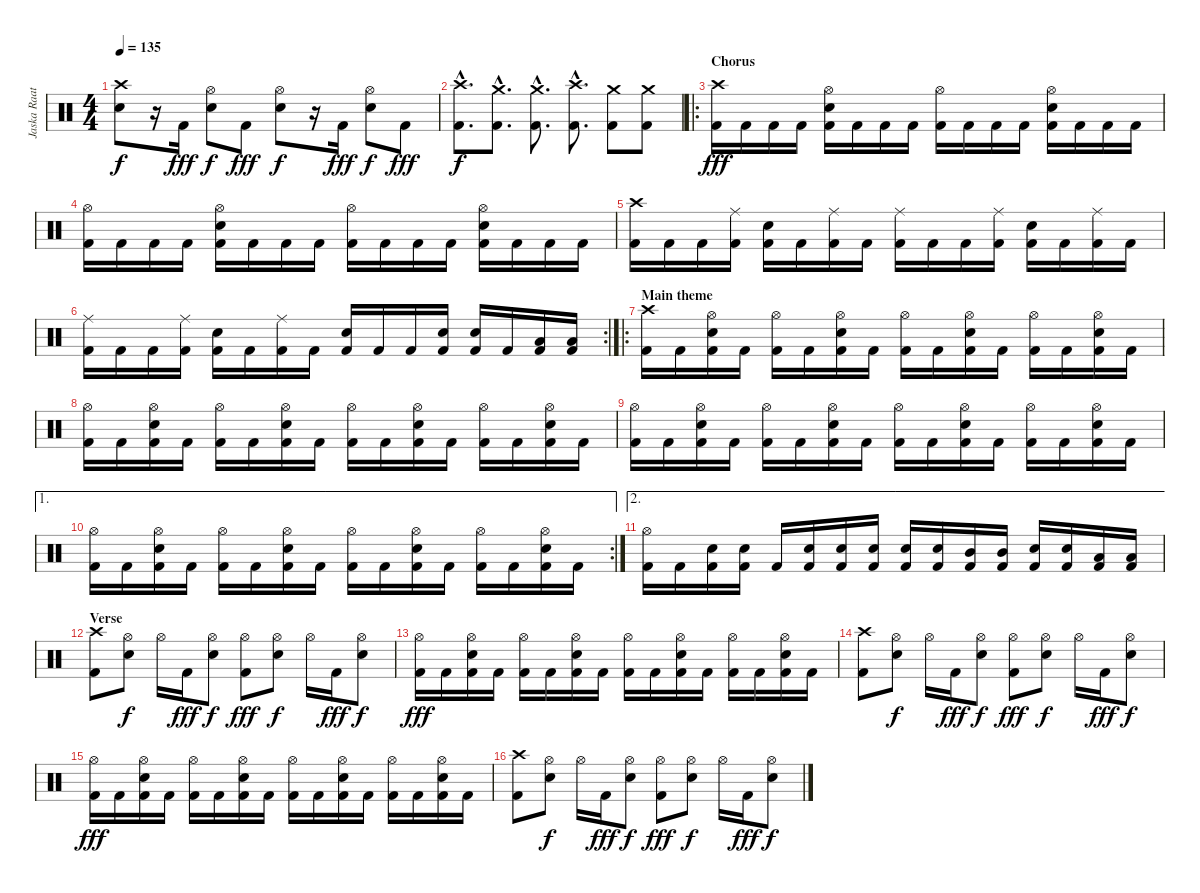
\track ("Jaska Raatikainen" "Jaska Raat") {instrument percussion}
\staff {score}
\articulation defaults
\ts (4 4)
\tempo 135
\clef neutral
\ks c
("Crash high (hit)" "Electric Snare (hit)").8{dy f} r.16 "Kick (hit) 2".16{dy fff} ("Hi-Hat (open)" "Electric Snare (hit)").8{dy f} "Kick (hit) 2".8{dy fff} ("Hi-Hat (open)" "Electric Snare (hit)").8{dy f} r.16 "Kick (hit) 2".16{dy fff} ("Hi-Hat (open)" "Electric Snare (hit)").8{dy f} "Kick (hit) 2".8{dy fff} |
("Crash high (hit)"{hac} "Kick (hit) 2"{hac}).8{d dy f} ("Crash medium (hit)"{hac} "Kick (hit) 2"{hac}).8{d} ("Crash medium (hit)"{hac} "Kick (hit) 2"{hac}).8{d} ("Crash high (hit)"{hac} "Kick (hit) 2"{hac}).8{d} ("Crash medium (hit)" "Kick (hit) 2").8 ("Crash medium (hit)" "Kick (hit) 2").8 |
\ro
\section ("" "Chorus")
("Crash high (hit)" "Kick (hit) 2").16{dy fff} "Kick (hit) 2".16 "Kick (hit) 2".16 "Kick (hit) 2".16 ("Hi-Hat (open)" "Electric Snare (hit)" "Kick (hit) 2").16 "Kick (hit) 2".16 "Kick (hit) 2".16 "Kick (hit) 2".16 ("Hi-Hat (open)" "Kick (hit) 2").16 "Kick (hit) 2".16 "Kick (hit) 2".16 "Kick (hit) 2".16 ("Hi-Hat (open)" "Electric Snare (hit)" "Kick (hit) 2").16 "Kick (hit) 2".16 "Kick (hit) 2".16 "Kick (hit) 2".16 |
("Hi-Hat (open)" "Kick (hit) 2").16 "Kick (hit) 2".16 "Kick (hit) 2".16 "Kick (hit) 2".16 ("Hi-Hat (open)" "Electric Snare (hit)" "Kick (hit) 2").16 "Kick (hit) 2".16 "Kick (hit) 2".16 "Kick (hit) 2".16 ("Hi-Hat (open)" "Kick (hit) 2").16 "Kick (hit) 2".16 "Kick (hit) 2".16 "Kick (hit) 2".16 ("Hi-Hat (open)" "Electric Snare (hit)" "Kick (hit) 2").16 "Kick (hit) 2".16 "Kick (hit) 2".16 "Kick (hit) 2".16 |
("Crash high (hit)" "Kick (hit) 2").16 "Kick (hit) 2".16 "Kick (hit) 2".16 ("Ride (middle)" "Kick (hit) 2").16 ("Electric Snare (hit)" "Kick (hit) 2").16 "Kick (hit) 2".16 ("Ride (middle)" "Kick (hit) 2").16 "Kick (hit) 2".16 ("Ride (middle)" "Kick (hit) 2").16 "Kick (hit) 2".16 "Kick (hit) 2".16 ("Ride (middle)" "Kick (hit) 2").16 ("Electric Snare (hit)" "Kick (hit) 2").16 "Kick (hit) 2".16 ("Ride (middle)" "Kick (hit) 2").16 "Kick (hit) 2".16 |
\rc 2
("Ride (middle)" "Kick (hit) 2").16 "Kick (hit) 2".16 "Kick (hit) 2".16 ("Ride (middle)" "Kick (hit) 2").16 ("Electric Snare (hit)" "Kick (hit) 2").16 "Kick (hit) 2".16 ("Ride (middle)" "Kick (hit) 2").16 "Kick (hit) 2".16 ("Electric Snare (hit)" "Kick (hit) 2").16 "Kick (hit) 2".16 "Kick (hit) 2".16 ("Electric Snare (hit)" "Kick (hit) 2").16 ("Electric Snare (hit)" "Kick (hit) 2").16 "Kick (hit) 2".16 ("Low Tom (hit)" "Kick (hit) 2").16 ("Low Tom (hit)" "Kick (hit) 2").16 |
\ro
\section ("" "Main theme")
("Crash high (hit)" "Kick (hit) 2").16 "Kick (hit) 2".16 ("Hi-Hat (open)" "Electric Snare (hit)" "Kick (hit) 2").16 "Kick (hit) 2".16 ("Hi-Hat (open)" "Kick (hit) 2").16 "Kick (hit) 2".16 ("Hi-Hat (open)" "Electric Snare (hit)" "Kick (hit) 2").16 "Kick (hit) 2".16 ("Hi-Hat (open)" "Kick (hit) 2").16 "Kick (hit) 2".16 ("Hi-Hat (open)" "Electric Snare (hit)" "Kick (hit) 2").16 "Kick (hit) 2".16 ("Hi-Hat (open)" "Kick (hit) 2").16 "Kick (hit) 2".16 ("Hi-Hat (open)" "Electric Snare (hit)" "Kick (hit) 2").16 "Kick (hit) 2".16 |
("Hi-Hat (open)" "Kick (hit) 2").16 "Kick (hit) 2".16 ("Hi-Hat (open)" "Electric Snare (hit)" "Kick (hit) 2").16 "Kick (hit) 2".16 ("Hi-Hat (open)" "Kick (hit) 2").16 "Kick (hit) 2".16 ("Hi-Hat (open)" "Electric Snare (hit)" "Kick (hit) 2").16 "Kick (hit) 2".16 ("Hi-Hat (open)" "Kick (hit) 2").16 "Kick (hit) 2".16 ("Hi-Hat (open)" "Electric Snare (hit)" "Kick (hit) 2").16 "Kick (hit) 2".16 ("Hi-Hat (open)" "Kick (hit) 2").16 "Kick (hit) 2".16 ("Hi-Hat (open)" "Electric Snare (hit)" "Kick (hit) 2").16 "Kick (hit) 2".16 |
("Hi-Hat (open)" "Kick (hit) 2").16 "Kick (hit) 2".16 ("Hi-Hat (open)" "Electric Snare (hit)" "Kick (hit) 2").16 "Kick (hit) 2".16 ("Hi-Hat (open)" "Kick (hit) 2").16 "Kick (hit) 2".16 ("Hi-Hat (open)" "Electric Snare (hit)" "Kick (hit) 2").16 "Kick (hit) 2".16 ("Hi-Hat (open)" "Kick (hit) 2").16 "Kick (hit) 2".16 ("Hi-Hat (open)" "Electric Snare (hit)" "Kick (hit) 2").16 "Kick (hit) 2".16 ("Hi-Hat (open)" "Kick (hit) 2").16 "Kick (hit) 2".16 ("Hi-Hat (open)" "Electric Snare (hit)" "Kick (hit) 2").16 "Kick (hit) 2".16 |
\ae 1
\rc 2
("Hi-Hat (open)" "Kick (hit) 2").16 "Kick (hit) 2".16 ("Hi-Hat (open)" "Electric Snare (hit)" "Kick (hit) 2").16 "Kick (hit) 2".16 ("Hi-Hat (open)" "Kick (hit) 2").16 "Kick (hit) 2".16 ("Hi-Hat (open)" "Electric Snare (hit)" "Kick (hit) 2").16 "Kick (hit) 2".16 ("Hi-Hat (open)" "Kick (hit) 2").16 "Kick (hit) 2".16 ("Hi-Hat (open)" "Electric Snare (hit)" "Kick (hit) 2").16 "Kick (hit) 2".16 ("Hi-Hat (open)" "Kick (hit) 2").16 "Kick (hit) 2".16 ("Hi-Hat (open)" "Electric Snare (hit)" "Kick (hit) 2").16 "Kick (hit) 2".16 |
\ae 2
("Hi-Hat (open)" "Kick (hit) 2").16 "Kick (hit) 2".16 ("Electric Snare (hit)" "Kick (hit) 2").16 ("Electric Snare (hit)" "Kick (hit) 2").16 "Kick (hit) 2".16 ("Electric Snare (hit)" "Kick (hit) 2").16 ("Electric Snare (hit)" "Kick (hit) 2").16 ("Electric Snare (hit)" "Kick (hit) 2").16 ("Electric Snare (hit)" "Kick (hit) 2").16 ("Electric Snare (hit)" "Kick (hit) 2").16 ("Mid Tom (hit)" "Kick (hit) 2").16 ("Mid Tom (hit)" "Kick (hit) 2").16 ("Electric Snare (hit)" "Kick (hit) 2").16 ("Electric Snare (hit)" "Kick (hit) 2").16 ("Low Tom (hit)" "Kick (hit) 2").16 ("Low Tom (hit)" "Kick (hit) 2").16 |
\section ("" "Verse")
("Crash high (hit)" "Kick (hit) 2").8 ("Hi-Hat (open)" "Electric Snare (hit)").8{dy f} "Hi-Hat (open)".16 "Kick (hit) 2".16{dy fff} ("Hi-Hat (open)" "Electric Snare (hit)").8{dy f} ("Hi-Hat (open)" "Kick (hit) 2").8{dy fff} ("Hi-Hat (open)" "Electric Snare (hit)").8{dy f} "Hi-Hat (open)".16 "Kick (hit) 2".16{dy fff} ("Hi-Hat (open)" "Electric Snare (hit)").8{dy f} |
("Hi-Hat (open)" "Kick (hit) 2").16{dy fff} "Kick (hit) 2".16 ("Hi-Hat (open)" "Electric Snare (hit)" "Kick (hit) 2").16 "Kick (hit) 2".16 ("Hi-Hat (open)" "Kick (hit) 2").16 "Kick (hit) 2".16 ("Hi-Hat (open)" "Electric Snare (hit)" "Kick (hit) 2").16 "Kick (hit) 2".16 ("Hi-Hat (open)" "Kick (hit) 2").16 "Kick (hit) 2".16 ("Hi-Hat (open)" "Electric Snare (hit)" "Kick (hit) 2").16 "Kick (hit) 2".16 ("Hi-Hat (open)" "Kick (hit) 2").16 "Kick (hit) 2".16 ("Hi-Hat (open)" "Electric Snare (hit)" "Kick (hit) 2").16 "Kick (hit) 2".16 |
("Crash high (hit)" "Kick (hit) 2").8 ("Hi-Hat (open)" "Electric Snare (hit)").8{dy f} "Hi-Hat (open)".16 "Kick (hit) 2".16{dy fff} ("Hi-Hat (open)" "Electric Snare (hit)").8{dy f} ("Hi-Hat (open)" "Kick (hit) 2").8{dy fff} ("Hi-Hat (open)" "Electric Snare (hit)").8{dy f} "Hi-Hat (open)".16 "Kick (hit) 2".16{dy fff} ("Hi-Hat (open)" "Electric Snare (hit)").8{dy f} |
("Hi-Hat (open)" "Kick (hit) 2").16{dy fff} "Kick (hit) 2".16 ("Hi-Hat (open)" "Electric Snare (hit)" "Kick (hit) 2").16 "Kick (hit) 2".16 ("Hi-Hat (open)" "Kick (hit) 2").16 "Kick (hit) 2".16 ("Hi-Hat (open)" "Electric Snare (hit)" "Kick (hit) 2").16 "Kick (hit) 2".16 ("Hi-Hat (open)" "Kick (hit) 2").16 "Kick (hit) 2".16 ("Hi-Hat (open)" "Electric Snare (hit)" "Kick (hit) 2").16 "Kick (hit) 2".16 ("Hi-Hat (open)" "Kick (hit) 2").16 "Kick (hit) 2".16 ("Hi-Hat (open)" "Electric Snare (hit)" "Kick (hit) 2").16 "Kick (hit) 2".16 |
("Crash high (hit)" "Kick (hit) 2").8 ("Hi-Hat (open)" "Electric Snare (hit)").8{dy f} "Hi-Hat (open)".16 "Kick (hit) 2".16{dy fff} ("Hi-Hat (open)" "Electric Snare (hit)").8{dy f} ("Hi-Hat (open)" "Kick (hit) 2").8{dy fff} ("Hi-Hat (open)" "Electric Snare (hit)").8{dy f} "Hi-Hat (open)".16 "Kick (hit) 2".16{dy fff} ("Hi-Hat (open)" "Electric Snare (hit)").8{dy f}
